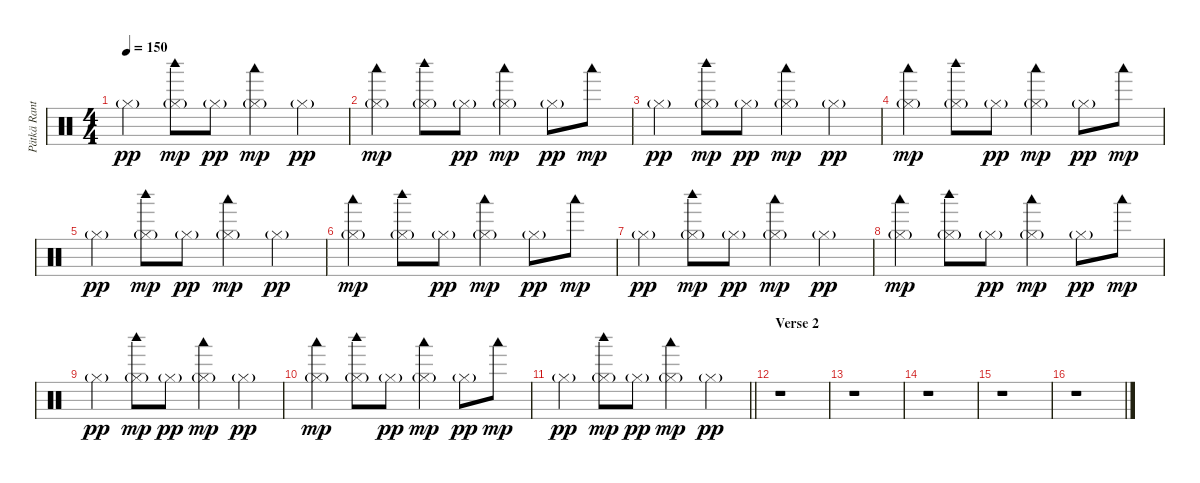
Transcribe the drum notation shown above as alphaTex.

\track ("Pätkä Rantala (Drums)" "Pätkä Rant") {instrument percussion}
\staff {score}
\articulation defaults
\ts (4 4)
\tempo 150
\clef neutral
\ks c "Hi-Hat (closed)"{g}.4{dy pp}
("Hi-Hat (closed)"{g} "Woodblock high (hit)").8{dy mp} "Hi-Hat (closed)"{g}.8{dy pp} ("Hi-Hat (closed)"{g} "Woodblock low (hit)").4{dy mp} "Hi-Hat (closed)"{g}.4{dy pp} |
("Hi-Hat (closed)"{g} "Woodblock low (hit)").4{dy mp} ("Hi-Hat (closed)"{g} "Woodblock high (hit)").8 "Hi-Hat (closed)"{g}.8{dy pp} ("Hi-Hat (closed)"{g} "Woodblock low (hit)").4{dy mp} "Hi-Hat (closed)"{g}.8{dy pp} "Woodblock low (hit)".8{dy mp} |
"Hi-Hat (closed)"{g}.4{dy pp} ("Hi-Hat (closed)"{g} "Woodblock high (hit)").8{dy mp} "Hi-Hat (closed)"{g}.8{dy pp} ("Hi-Hat (closed)"{g} "Woodblock low (hit)").4{dy mp} "Hi-Hat (closed)"{g}.4{dy pp} |
("Hi-Hat (closed)"{g} "Woodblock low (hit)").4{dy mp} ("Hi-Hat (closed)"{g} "Woodblock high (hit)").8 "Hi-Hat (closed)"{g}.8{dy pp} ("Hi-Hat (closed)"{g} "Woodblock low (hit)").4{dy mp} "Hi-Hat (closed)"{g}.8{dy pp} "Woodblock low (hit)".8{dy mp} |
"Hi-Hat (closed)"{g}.4{dy pp} ("Hi-Hat (closed)"{g} "Woodblock high (hit)").8{dy mp} "Hi-Hat (closed)"{g}.8{dy pp} ("Hi-Hat (closed)"{g} "Woodblock low (hit)").4{dy mp} "Hi-Hat (closed)"{g}.4{dy pp} |
("Hi-Hat (closed)"{g} "Woodblock low (hit)").4{dy mp} ("Hi-Hat (closed)"{g} "Woodblock high (hit)").8 "Hi-Hat (closed)"{g}.8{dy pp} ("Hi-Hat (closed)"{g} "Woodblock low (hit)").4{dy mp} "Hi-Hat (closed)"{g}.8{dy pp} "Woodblock low (hit)".8{dy mp} |
"Hi-Hat (closed)"{g}.4{dy pp} ("Hi-Hat (closed)"{g} "Woodblock high (hit)").8{dy mp} "Hi-Hat (closed)"{g}.8{dy pp} ("Hi-Hat (closed)"{g} "Woodblock low (hit)").4{dy mp} "Hi-Hat (closed)"{g}.4{dy pp} |
("Hi-Hat (closed)"{g} "Woodblock low (hit)").4{dy mp} ("Hi-Hat (closed)"{g} "Woodblock high (hit)").8 "Hi-Hat (closed)"{g}.8{dy pp} ("Hi-Hat (closed)"{g} "Woodblock low (hit)").4{dy mp} "Hi-Hat (closed)"{g}.8{dy pp} "Woodblock low (hit)".8{dy mp} |
"Hi-Hat (closed)"{g}.4{dy pp} ("Hi-Hat (closed)"{g} "Woodblock high (hit)").8{dy mp} "Hi-Hat (closed)"{g}.8{dy pp} ("Hi-Hat (closed)"{g} "Woodblock low (hit)").4{dy mp} "Hi-Hat (closed)"{g}.4{dy pp} |
("Hi-Hat (closed)"{g} "Woodblock low (hit)").4{dy mp} ("Hi-Hat (closed)"{g} "Woodblock high (hit)").8 "Hi-Hat (closed)"{g}.8{dy pp} ("Hi-Hat (closed)"{g} "Woodblock low (hit)").4{dy mp} "Hi-Hat (closed)"{g}.8{dy pp} "Woodblock low (hit)".8{dy mp} |
\barLineRight lightlight "Hi-Hat (closed)"{g}.4{dy pp}
("Hi-Hat (closed)"{g} "Woodblock high (hit)").8{dy mp} "Hi-Hat (closed)"{g}.8{dy pp} ("Hi-Hat (closed)"{g} "Woodblock low (hit)").4{dy mp} "Hi-Hat (closed)"{g}.4{dy pp} |
\section ("" "Verse 2")
r.1 |
r.1 |
r.1 |
r.1 |
r.1
